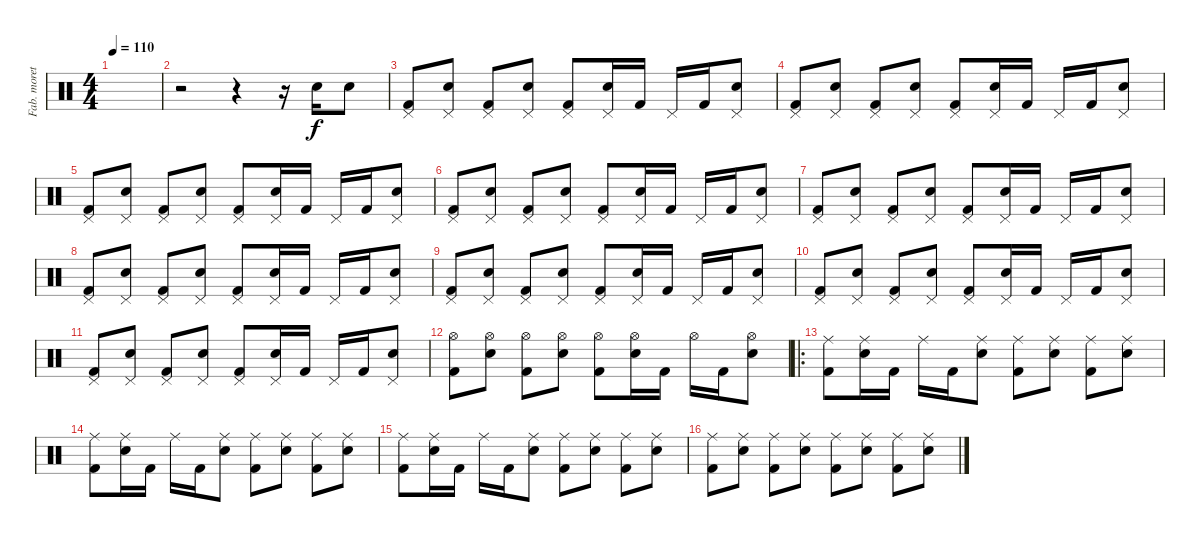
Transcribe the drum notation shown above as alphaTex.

\track ("Fab. moretti" "Fab. moret") {instrument percussion}
\staff {score}
\articulation defaults
\ts (4 4)
\tempo 110
\clef neutral
\ks c
|
r.2 r.4 r.16 "Electric Snare (hit)".16 "Electric Snare (hit)".8 |
("Pedal Hi-Hat (hit)" "Kick (hit) 2").8 ("Pedal Hi-Hat (hit)" "Electric Snare (hit)").8 ("Pedal Hi-Hat (hit)" "Kick (hit) 2").8 ("Pedal Hi-Hat (hit)" "Electric Snare (hit)").8 ("Pedal Hi-Hat (hit)" "Kick (hit) 2").8 ("Pedal Hi-Hat (hit)" "Electric Snare (hit)").16 "Kick (hit) 2".16 "Pedal Hi-Hat (hit)".16 "Kick (hit) 2".16 ("Pedal Hi-Hat (hit)" "Electric Snare (hit)").8 |
("Pedal Hi-Hat (hit)" "Kick (hit) 2").8 ("Pedal Hi-Hat (hit)" "Electric Snare (hit)").8 ("Pedal Hi-Hat (hit)" "Kick (hit) 2").8 ("Pedal Hi-Hat (hit)" "Electric Snare (hit)").8 ("Pedal Hi-Hat (hit)" "Kick (hit) 2").8 ("Pedal Hi-Hat (hit)" "Electric Snare (hit)").16 "Kick (hit) 2".16 "Pedal Hi-Hat (hit)".16 "Kick (hit) 2".16 ("Pedal Hi-Hat (hit)" "Electric Snare (hit)").8 |
("Pedal Hi-Hat (hit)" "Kick (hit) 2").8 ("Pedal Hi-Hat (hit)" "Electric Snare (hit)").8 ("Pedal Hi-Hat (hit)" "Kick (hit) 2").8 ("Pedal Hi-Hat (hit)" "Electric Snare (hit)").8 ("Pedal Hi-Hat (hit)" "Kick (hit) 2").8 ("Pedal Hi-Hat (hit)" "Electric Snare (hit)").16 "Kick (hit) 2".16 "Pedal Hi-Hat (hit)".16 "Kick (hit) 2".16 ("Pedal Hi-Hat (hit)" "Electric Snare (hit)").8 |
("Pedal Hi-Hat (hit)" "Kick (hit) 2").8 ("Pedal Hi-Hat (hit)" "Electric Snare (hit)").8 ("Pedal Hi-Hat (hit)" "Kick (hit) 2").8 ("Pedal Hi-Hat (hit)" "Electric Snare (hit)").8 ("Pedal Hi-Hat (hit)" "Kick (hit) 2").8 ("Pedal Hi-Hat (hit)" "Electric Snare (hit)").16 "Kick (hit) 2".16 "Pedal Hi-Hat (hit)".16 "Kick (hit) 2".16 ("Pedal Hi-Hat (hit)" "Electric Snare (hit)").8 |
("Pedal Hi-Hat (hit)" "Kick (hit) 2").8 ("Pedal Hi-Hat (hit)" "Electric Snare (hit)").8 ("Pedal Hi-Hat (hit)" "Kick (hit) 2").8 ("Pedal Hi-Hat (hit)" "Electric Snare (hit)").8 ("Pedal Hi-Hat (hit)" "Kick (hit) 2").8 ("Pedal Hi-Hat (hit)" "Electric Snare (hit)").16 "Kick (hit) 2".16 "Pedal Hi-Hat (hit)".16 "Kick (hit) 2".16 ("Pedal Hi-Hat (hit)" "Electric Snare (hit)").8 |
("Pedal Hi-Hat (hit)" "Kick (hit) 2").8 ("Pedal Hi-Hat (hit)" "Electric Snare (hit)").8 ("Pedal Hi-Hat (hit)" "Kick (hit) 2").8 ("Pedal Hi-Hat (hit)" "Electric Snare (hit)").8 ("Pedal Hi-Hat (hit)" "Kick (hit) 2").8 ("Pedal Hi-Hat (hit)" "Electric Snare (hit)").16 "Kick (hit) 2".16 "Pedal Hi-Hat (hit)".16 "Kick (hit) 2".16 ("Pedal Hi-Hat (hit)" "Electric Snare (hit)").8 |
("Pedal Hi-Hat (hit)" "Kick (hit) 2").8 ("Pedal Hi-Hat (hit)" "Electric Snare (hit)").8 ("Pedal Hi-Hat (hit)" "Kick (hit) 2").8 ("Pedal Hi-Hat (hit)" "Electric Snare (hit)").8 ("Pedal Hi-Hat (hit)" "Kick (hit) 2").8 ("Pedal Hi-Hat (hit)" "Electric Snare (hit)").16 "Kick (hit) 2".16 "Pedal Hi-Hat (hit)".16 "Kick (hit) 2".16 ("Pedal Hi-Hat (hit)" "Electric Snare (hit)").8 |
("Pedal Hi-Hat (hit)" "Kick (hit) 2").8 ("Pedal Hi-Hat (hit)" "Electric Snare (hit)").8 ("Pedal Hi-Hat (hit)" "Kick (hit) 2").8 ("Pedal Hi-Hat (hit)" "Electric Snare (hit)").8 ("Pedal Hi-Hat (hit)" "Kick (hit) 2").8 ("Pedal Hi-Hat (hit)" "Electric Snare (hit)").16 "Kick (hit) 2".16 "Pedal Hi-Hat (hit)".16 "Kick (hit) 2".16 ("Pedal Hi-Hat (hit)" "Electric Snare (hit)").8 |
("Pedal Hi-Hat (hit)" "Kick (hit) 2").8 ("Pedal Hi-Hat (hit)" "Electric Snare (hit)").8 ("Pedal Hi-Hat (hit)" "Kick (hit) 2").8 ("Pedal Hi-Hat (hit)" "Electric Snare (hit)").8 ("Pedal Hi-Hat (hit)" "Kick (hit) 2").8 ("Pedal Hi-Hat (hit)" "Electric Snare (hit)").16 "Kick (hit) 2".16 "Pedal Hi-Hat (hit)".16 "Kick (hit) 2".16 ("Pedal Hi-Hat (hit)" "Electric Snare (hit)").8 |
("Hi-Hat (open)" "Kick (hit) 2").8 ("Hi-Hat (open)" "Electric Snare (hit)").8 ("Hi-Hat (open)" "Kick (hit) 2").8 ("Hi-Hat (open)" "Electric Snare (hit)").8 ("Hi-Hat (open)" "Kick (hit) 2").8 ("Hi-Hat (open)" "Electric Snare (hit)").16 "Kick (hit) 2".16 "Hi-Hat (open)".16 "Kick (hit) 2".16 ("Hi-Hat (open)" "Electric Snare (hit)").8 |
\ro
("Ride (middle)" "Kick (hit) 2").8 ("Ride (middle)" "Electric Snare (hit)").16 "Kick (hit) 2".16 "Ride (middle)".16 "Kick (hit) 2".16 ("Ride (middle)" "Electric Snare (hit)").8 ("Ride (middle)" "Kick (hit) 2").8 ("Ride (middle)" "Electric Snare (hit)").8 ("Ride (middle)" "Kick (hit) 2").8 ("Ride (middle)" "Electric Snare (hit)").8 |
("Ride (middle)" "Kick (hit) 2").8 ("Ride (middle)" "Electric Snare (hit)").16 "Kick (hit) 2".16 "Ride (middle)".16 "Kick (hit) 2".16 ("Ride (middle)" "Electric Snare (hit)").8 ("Ride (middle)" "Kick (hit) 2").8 ("Ride (middle)" "Electric Snare (hit)").8 ("Ride (middle)" "Kick (hit) 2").8 ("Ride (middle)" "Electric Snare (hit)").8 |
("Ride (middle)" "Kick (hit) 2").8 ("Ride (middle)" "Electric Snare (hit)").16 "Kick (hit) 2".16 "Ride (middle)".16 "Kick (hit) 2".16 ("Ride (middle)" "Electric Snare (hit)").8 ("Ride (middle)" "Kick (hit) 2").8 ("Ride (middle)" "Electric Snare (hit)").8 ("Ride (middle)" "Kick (hit) 2").8 ("Ride (middle)" "Electric Snare (hit)").8 |
("Ride (middle)" "Kick (hit) 2").8 ("Ride (middle)" "Electric Snare (hit)").8 ("Ride (middle)" "Kick (hit) 2").8 ("Ride (middle)" "Electric Snare (hit)").8 ("Ride (middle)" "Kick (hit) 2").8 ("Ride (middle)" "Electric Snare (hit)").8 ("Ride (middle)" "Kick (hit) 2").8 ("Ride (middle)" "Electric Snare (hit)").8
